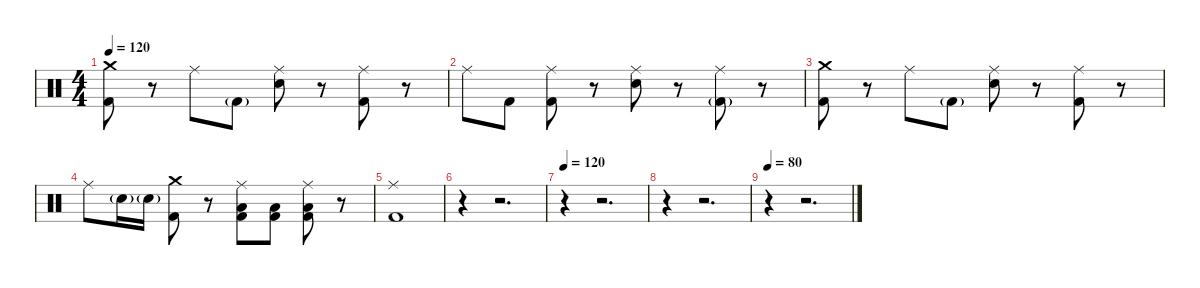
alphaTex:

\defaultSystemsLayout 4
\hideDynamics
\bracketExtendMode nobrackets
\singleTrackTrackNamePolicy hidden
\multiTrackTrackNamePolicy hidden
\firstSystemTrackNameMode fullname
\firstSystemTrackNameOrientation horizontal
\otherSystemsTrackNameOrientation horizontal
\track ("Martin Axenrot - Drums" "drm.") {instrument percussion}
\staff {score}
\articulation defaults
\ts (4 4)
\tempo 120
\clef neutral
\ks c
("Crash medium (hit)" "Kick (hit) 2").8{dy f beam Down} r.8{beam Down} "Ride (middle)".8{dy mf beam Down} "Kick (hit) 2"{g}.8{beam Down} ("Ride (middle)" "Snare (hit) 2").8{dy f beam Down} r.8{beam Down} ("Ride (middle)" "Kick (hit) 2").8{dy mf beam Down} r.8{beam Down} |
"Ride (middle)".8{dy f beam Down} "Kick (hit) 2".8{dy mf beam Down} ("Ride (middle)" "Kick (hit) 2").8{beam Down} r.8{beam Down} ("Ride (middle)" "Snare (hit) 2").8{dy f beam Down} r.8{beam Down} ("Ride (middle)" "Kick (hit) 2"{g}).8{dy mf beam Down} r.8{beam Down} |
("Crash medium (hit)" "Kick (hit) 2").8{dy f beam Down} r.8{beam Down} "Ride (middle)".8{dy mf beam Down} "Kick (hit) 2"{g}.8{beam Down} ("Ride (middle)" "Snare (hit) 2").8{dy f beam Down} r.8{beam Down} ("Ride (middle)" "Kick (hit) 2").8{dy mf beam Down} r.8{beam Down} |
"Ride (middle)".8{dy f beam Down} "Snare (hit) 2"{g}.16{dy mf beam Down} "Snare (hit) 2"{g}.16{beam Down} ("Crash medium (hit)" "Kick (hit) 2").8{dy f beam Down} r.8{beam Down} ("Ride (middle)" "Low Floor Tom (hit)" "Kick (hit) 2").8{beam Down} ("Low Floor Tom (hit)" "Kick (hit) 2").8{beam Down} ("Ride (middle)" "Low Floor Tom (hit)" "Kick (hit) 2").8{dy mf beam Down} r.8{beam Down} |
("Ride (middle)" "Kick (hit) 2").1{dy f beam Down} |
r.4{beam Down} r.2{d beam Down} |
\tempo 120
r.4{beam Down} r.2{d beam Down} |
r.4{beam Down} r.2{d beam Down} |
\tempo 80
r.4{beam Down} r.2{d beam Down}
